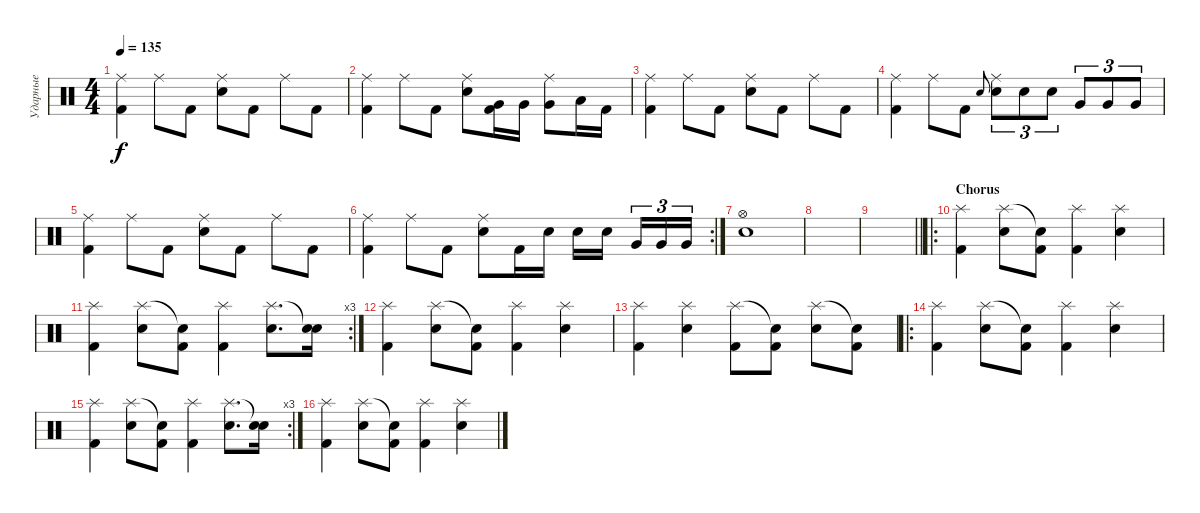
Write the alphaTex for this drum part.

\track ("Ударные" "Ударные") {instrument percussion}
\staff {score}
\articulation defaults
\ts (4 4)
\tempo 135
\clef neutral
\ks c
("Ride (middle)" "Kick (hit) 2").4{dy f} "Ride (middle)".8 "Kick (hit) 2".8 ("Ride (middle)" "Electric Snare (hit)").8 "Kick (hit) 2".8 "Ride (middle)".8 "Kick (hit) 2".8 |
("Ride (middle)" "Kick (hit) 2").4 "Ride (middle)".8 "Kick (hit) 2".8 ("Ride (middle)" "Electric Snare (hit)").8 ("Very Low Tom (hit)" "Kick (hit) 2").16 "Very Low Tom (hit)".16 ("Ride (middle)" "Very Low Tom (hit)").8 "Low Floor Tom (hit)".16 "Kick (hit) 2".16 |
("Ride (middle)" "Kick (hit) 2").4 "Ride (middle)".8 "Kick (hit) 2".8 ("Ride (middle)" "Electric Snare (hit)").8 "Kick (hit) 2".8 "Ride (middle)".8 "Kick (hit) 2".8 |
("Ride (middle)" "Kick (hit) 2").4 "Ride (middle)".8 "Kick (hit) 2".8 "Electric Snare (hit)".8{gr onbeat} ("Ride (middle)" "Electric Snare (hit)").8{tu (3 2)} "Electric Snare (hit)".8{tu (3 2)} "Electric Snare (hit)".8{tu (3 2)} "Very Low Tom (hit)".8{tu (3 2)} "Very Low Tom (hit)".8{tu (3 2)} "Very Low Tom (hit)".8{tu (3 2)} |
("Ride (middle)" "Kick (hit) 2").4 "Ride (middle)".8 "Kick (hit) 2".8 ("Ride (middle)" "Electric Snare (hit)").8 "Kick (hit) 2".8 "Ride (middle)".8 "Kick (hit) 2".8 |
\rc 2
("Ride (middle)" "Kick (hit) 2").4 "Ride (middle)".8 "Kick (hit) 2".8 ("Ride (middle)" "Electric Snare (hit)").8 "Kick (hit) 2".16 "Electric Snare (hit)".16 "Electric Snare (hit)".16 "Electric Snare (hit)".16{beam splitsecondary} "Very Low Tom (hit)".16{tu (3 2)} "Very Low Tom (hit)".16{tu (3 2)} "Very Low Tom (hit)".16{tu (3 2)} |
("Hi-Hat (open)" "Electric Snare (hit)").1 |
|
\barLineRight lightlight
|
\ro
\section ("" "Chorus")
("Splash (hit)" "Kick (hit) 2").4 ("Splash (hit)" "Electric Snare (hit)").8 ("Snare (hit)"{t} "Kick (hit) 2").8 ("Splash (hit)" "Kick (hit) 2").4 ("Splash (hit)" "Electric Snare (hit)").4 |
\rc 3
("Splash (hit)" "Kick (hit) 2").4 ("Splash (hit)" "Electric Snare (hit)").8 ("Snare (hit)"{t} "Kick (hit) 2").8 ("Splash (hit)" "Kick (hit) 2").4 ("Splash (hit)" "Electric Snare (hit)").8{d} ("Snare (hit)"{t} "Electric Snare (hit)").16 |
("Splash (hit)" "Kick (hit) 2").4 ("Splash (hit)" "Electric Snare (hit)").8 ("Snare (hit)"{t} "Kick (hit) 2").8 ("Splash (hit)" "Kick (hit) 2").4 ("Splash (hit)" "Electric Snare (hit)").4 |
("Splash (hit)" "Kick (hit) 2").4 ("Splash (hit)" "Electric Snare (hit)").4 ("Splash (hit)" "Kick (hit) 2").8 ("Snare (hit)"{t} "Kick (hit) 2").8 ("Splash (hit)" "Electric Snare (hit)").8 ("Snare (hit)"{t} "Kick (hit) 2").8 |
\ro
("Splash (hit)" "Kick (hit) 2").4 ("Splash (hit)" "Electric Snare (hit)").8 ("Snare (hit)"{t} "Kick (hit) 2").8 ("Splash (hit)" "Kick (hit) 2").4 ("Splash (hit)" "Electric Snare (hit)").4 |
\rc 3
("Splash (hit)" "Kick (hit) 2").4 ("Splash (hit)" "Electric Snare (hit)").8 ("Snare (hit)"{t} "Kick (hit) 2").8 ("Splash (hit)" "Kick (hit) 2").4 ("Splash (hit)" "Electric Snare (hit)").8{d} ("Snare (hit)"{t} "Electric Snare (hit)").16 |
("Splash (hit)" "Kick (hit) 2").4 ("Splash (hit)" "Electric Snare (hit)").8 ("Snare (hit)"{t} "Kick (hit) 2").8 ("Splash (hit)" "Kick (hit) 2").4 ("Splash (hit)" "Electric Snare (hit)").4
